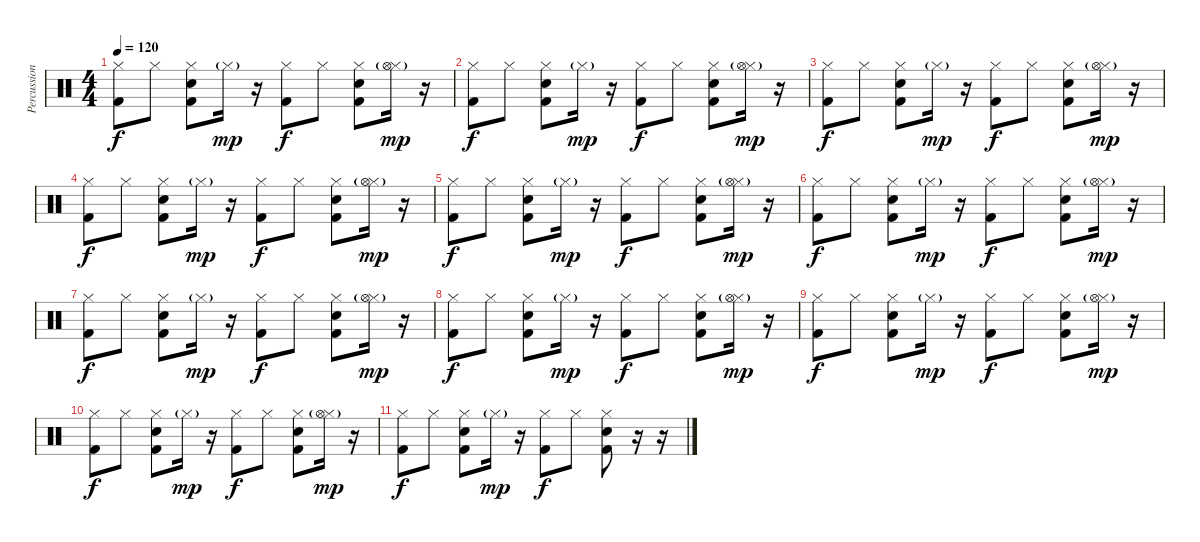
\track ("Percussion" "Percussion") {instrument percussion}
\staff {score}
\articulation defaults
\ts (4 4)
\tempo 120
\clef neutral
\ks c
("Hi-Hat (closed)" "Kick (hit) 2").8{dy f} "Hi-Hat (closed)".8 ("Hi-Hat (closed)" "Kick (hit) 2" "Hand Clap (hit)").8 "Hi-Hat (closed)"{g}.16{dy mp} r.16 ("Hi-Hat (closed)" "Kick (hit) 2").8{dy f} "Hi-Hat (closed)".8 ("Hi-Hat (closed)" "Kick (hit) 2" "Hand Clap (hit)").8 ("Hi-Hat (closed)"{g} "Hi-Hat (open)"{g}).16{dy mp} r.16 |
("Hi-Hat (closed)" "Kick (hit) 2").8{dy f} "Hi-Hat (closed)".8 ("Hi-Hat (closed)" "Kick (hit) 2" "Hand Clap (hit)").8 "Hi-Hat (closed)"{g}.16{dy mp} r.16 ("Hi-Hat (closed)" "Kick (hit) 2").8{dy f} "Hi-Hat (closed)".8 ("Hi-Hat (closed)" "Kick (hit) 2" "Hand Clap (hit)").8 ("Hi-Hat (closed)"{g} "Hi-Hat (open)"{g}).16{dy mp} r.16 |
("Hi-Hat (closed)" "Kick (hit) 2").8{dy f} "Hi-Hat (closed)".8 ("Hi-Hat (closed)" "Kick (hit) 2" "Hand Clap (hit)").8 "Hi-Hat (closed)"{g}.16{dy mp} r.16 ("Hi-Hat (closed)" "Kick (hit) 2").8{dy f} "Hi-Hat (closed)".8 ("Hi-Hat (closed)" "Kick (hit) 2" "Hand Clap (hit)").8 ("Hi-Hat (closed)"{g} "Hi-Hat (open)"{g}).16{dy mp} r.16 |
("Hi-Hat (closed)" "Kick (hit) 2").8{dy f} "Hi-Hat (closed)".8 ("Hi-Hat (closed)" "Kick (hit) 2" "Hand Clap (hit)").8 "Hi-Hat (closed)"{g}.16{dy mp} r.16 ("Hi-Hat (closed)" "Kick (hit) 2").8{dy f} "Hi-Hat (closed)".8 ("Hi-Hat (closed)" "Kick (hit) 2" "Hand Clap (hit)").8 ("Hi-Hat (closed)"{g} "Hi-Hat (open)"{g}).16{dy mp} r.16 |
("Hi-Hat (closed)" "Kick (hit) 2").8{dy f} "Hi-Hat (closed)".8 ("Hi-Hat (closed)" "Kick (hit) 2" "Hand Clap (hit)").8 "Hi-Hat (closed)"{g}.16{dy mp} r.16 ("Hi-Hat (closed)" "Kick (hit) 2").8{dy f} "Hi-Hat (closed)".8 ("Hi-Hat (closed)" "Kick (hit) 2" "Hand Clap (hit)").8 ("Hi-Hat (closed)"{g} "Hi-Hat (open)"{g}).16{dy mp} r.16 |
("Hi-Hat (closed)" "Kick (hit) 2").8{dy f} "Hi-Hat (closed)".8 ("Hi-Hat (closed)" "Kick (hit) 2" "Hand Clap (hit)").8 "Hi-Hat (closed)"{g}.16{dy mp} r.16 ("Hi-Hat (closed)" "Kick (hit) 2").8{dy f} "Hi-Hat (closed)".8 ("Hi-Hat (closed)" "Kick (hit) 2" "Hand Clap (hit)").8 ("Hi-Hat (closed)"{g} "Hi-Hat (open)"{g}).16{dy mp} r.16 |
("Hi-Hat (closed)" "Kick (hit) 2").8{dy f} "Hi-Hat (closed)".8 ("Hi-Hat (closed)" "Kick (hit) 2" "Hand Clap (hit)").8 "Hi-Hat (closed)"{g}.16{dy mp} r.16 ("Hi-Hat (closed)" "Kick (hit) 2").8{dy f} "Hi-Hat (closed)".8 ("Hi-Hat (closed)" "Kick (hit) 2" "Hand Clap (hit)").8 ("Hi-Hat (closed)"{g} "Hi-Hat (open)"{g}).16{dy mp} r.16 |
("Hi-Hat (closed)" "Kick (hit) 2").8{dy f} "Hi-Hat (closed)".8 ("Hi-Hat (closed)" "Kick (hit) 2" "Hand Clap (hit)").8 "Hi-Hat (closed)"{g}.16{dy mp} r.16 ("Hi-Hat (closed)" "Kick (hit) 2").8{dy f} "Hi-Hat (closed)".8 ("Hi-Hat (closed)" "Kick (hit) 2" "Hand Clap (hit)").8 ("Hi-Hat (closed)"{g} "Hi-Hat (open)"{g}).16{dy mp} r.16 |
("Hi-Hat (closed)" "Kick (hit) 2").8{dy f} "Hi-Hat (closed)".8 ("Hi-Hat (closed)" "Kick (hit) 2" "Hand Clap (hit)").8 "Hi-Hat (closed)"{g}.16{dy mp} r.16 ("Hi-Hat (closed)" "Kick (hit) 2").8{dy f} "Hi-Hat (closed)".8 ("Hi-Hat (closed)" "Kick (hit) 2" "Hand Clap (hit)").8 ("Hi-Hat (closed)"{g} "Hi-Hat (open)"{g}).16{dy mp} r.16 |
("Hi-Hat (closed)" "Kick (hit) 2").8{dy f} "Hi-Hat (closed)".8 ("Hi-Hat (closed)" "Kick (hit) 2" "Hand Clap (hit)").8 "Hi-Hat (closed)"{g}.16{dy mp} r.16 ("Hi-Hat (closed)" "Kick (hit) 2").8{dy f} "Hi-Hat (closed)".8 ("Hi-Hat (closed)" "Kick (hit) 2" "Hand Clap (hit)").8 ("Hi-Hat (closed)"{g} "Hi-Hat (open)"{g}).16{dy mp} r.16 |
("Hi-Hat (closed)" "Kick (hit) 2").8{dy f} "Hi-Hat (closed)".8 ("Hi-Hat (closed)" "Kick (hit) 2" "Hand Clap (hit)").8 "Hi-Hat (closed)"{g}.16{dy mp} r.16 ("Hi-Hat (closed)" "Kick (hit) 2").8{dy f} "Hi-Hat (closed)".8 ("Hi-Hat (closed)" "Kick (hit) 2" "Hand Clap (hit)").8 r.16 r.16
